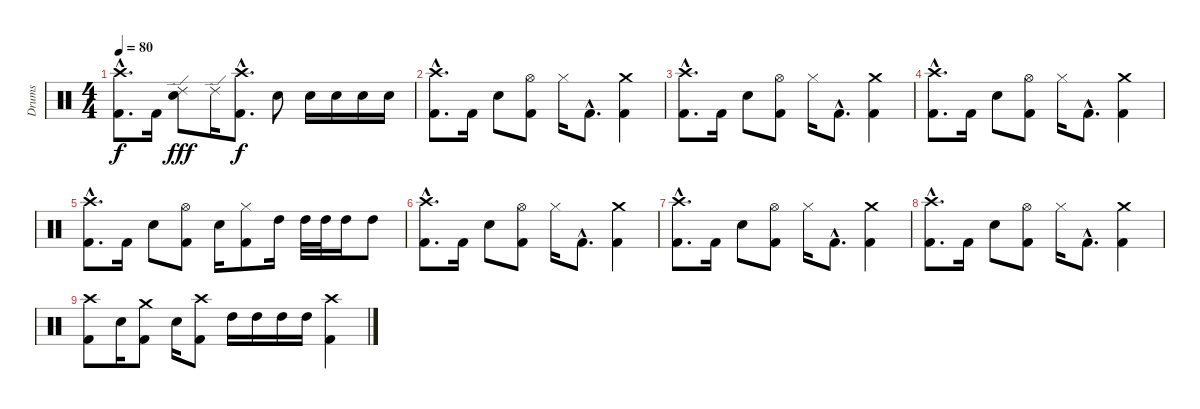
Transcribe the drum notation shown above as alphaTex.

\track ("Drums" "Drums") {instrument percussion}
\staff {score}
\articulation defaults
\ts (4 4)
\tempo 80
\clef neutral
\ks c
("Crash high (hit)"{hac} "Kick (hit) 2"{hac}).8{d dy f} "Kick (hit) 2".16 ("Ride (edge) 2" "Snare (hit) 2").8{dy fff} "Ride (edge) 2".16 ("Crash high (hit)"{hac} "Kick (hit) 2"{hac}).8{d dy f} "Snare (hit) 2".8 "Snare (hit) 2".16 "Snare (hit) 2".16 "Snare (hit) 2".16 "Snare (hit) 2".16 |
("Crash high (hit)"{hac} "Kick (hit) 2"{hac}).8{d} "Kick (hit) 2".16 "Snare (hit) 2".8 ("Hi-Hat (open)" "Kick (hit) 2").8 "Hi-Hat (closed)".16 "Kick (hit) 2"{hac}.8{d} ("Crash medium (hit)" "Kick (hit) 2").4 |
("Crash high (hit)"{hac} "Kick (hit) 2"{hac}).8{d} "Kick (hit) 2".16 "Snare (hit) 2".8 ("Hi-Hat (open)" "Kick (hit) 2").8 "Hi-Hat (closed)".16 "Kick (hit) 2"{hac}.8{d} ("Crash medium (hit)" "Kick (hit) 2").4 |
("Crash high (hit)"{hac} "Kick (hit) 2"{hac}).8{d} "Kick (hit) 2".16 "Snare (hit) 2".8 ("Hi-Hat (open)" "Kick (hit) 2").8 "Hi-Hat (closed)".16 "Kick (hit) 2"{hac}.8{d} ("Crash medium (hit)" "Kick (hit) 2").4 |
("Crash high (hit)"{hac} "Kick (hit) 2"{hac}).8{d} "Kick (hit) 2".16 "Snare (hit) 2".8 ("Hi-Hat (open)" "Kick (hit) 2").8 "Snare (hit) 2".16 ("Hi-Hat (closed)" "Kick (hit) 2").8 "High Tom (hit)".16 "High Tom (hit)".32 "High Tom (hit)".32 "High Tom (hit)".16 "High Tom (hit)".8 |
("Crash high (hit)"{hac} "Kick (hit) 2"{hac}).8{d} "Kick (hit) 2".16 "Snare (hit) 2".8 ("Hi-Hat (open)" "Kick (hit) 2").8 "Hi-Hat (closed)".16 "Kick (hit) 2"{hac}.8{d} ("Crash medium (hit)" "Kick (hit) 2").4 |
("Crash high (hit)"{hac} "Kick (hit) 2"{hac}).8{d} "Kick (hit) 2".16 "Snare (hit) 2".8 ("Hi-Hat (open)" "Kick (hit) 2").8 "Hi-Hat (closed)".16 "Kick (hit) 2"{hac}.8{d} ("Crash medium (hit)" "Kick (hit) 2").4 |
("Crash high (hit)"{hac} "Kick (hit) 2"{hac}).8{d} "Kick (hit) 2".16 "Snare (hit) 2".8 ("Hi-Hat (open)" "Kick (hit) 2").8 "Hi-Hat (closed)".16 "Kick (hit) 2"{hac}.8{d} ("Crash medium (hit)" "Kick (hit) 2").4 |
("Crash high (hit)" "Kick (hit) 2").8 "Snare (hit) 2".16 ("Crash medium (hit)" "Kick (hit) 2").8 "Snare (hit) 2".16 ("Crash high (hit)" "Kick (hit) 2").8 "High Tom (hit)".16 "High Tom (hit)".16 "High Tom (hit)".16 "High Tom (hit)".16 ("Crash high (hit)" "Kick (hit) 2").4
